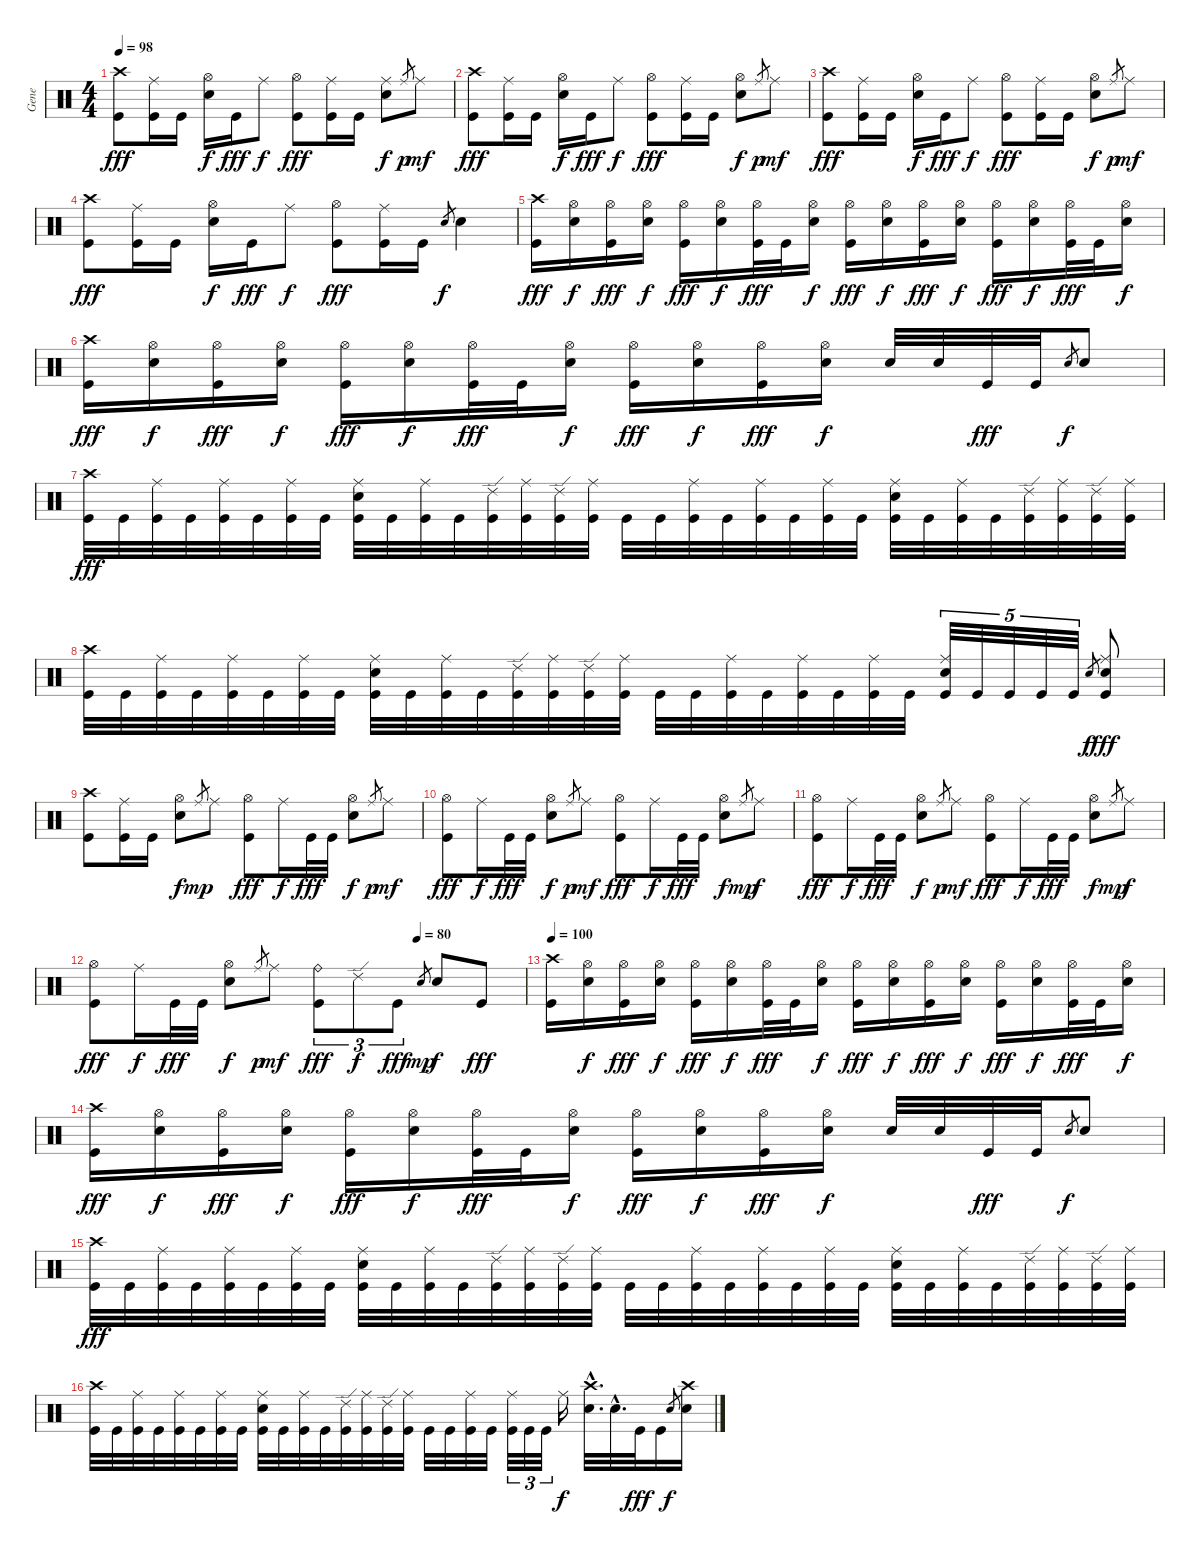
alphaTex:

\track ("Gene" "Gene") {instrument percussion}
\staff {score}
\articulation defaults
\ts (4 4)
\tempo 98
\clef neutral
\ks c
("Crash high (hit)" "Kick (hit)").8{dy fff} ("Ride (middle)" "Kick (hit)").16 "Kick (hit)".16 ("Hi-Hat (open)" "Snare (hit) 2").16{dy f} "Kick (hit)".16{dy fff} "Ride (middle)".8{dy f} ("Hi-Hat (open)" "Kick (hit)").8{dy fff} ("Ride (middle)" "Kick (hit)").16 "Kick (hit)".16 ("Ride (middle)" "Snare (hit) 2").8{dy f} "Ride (middle)".8{gr dy p} "Ride (middle)".8{dy mf} |
("Crash high (hit)" "Kick (hit)").8{dy fff} ("Ride (middle)" "Kick (hit)").16 "Kick (hit)".16 ("Hi-Hat (open)" "Snare (hit) 2").16{dy f} "Kick (hit)".16{dy fff} "Ride (middle)".8{dy f} ("Hi-Hat (open)" "Kick (hit)").8{dy fff} ("Ride (middle)" "Kick (hit)").16 "Kick (hit)".16 ("Hi-Hat (open)" "Snare (hit) 2").8{dy f} "Ride (middle)".8{gr dy p} "Ride (middle)".8{dy mf} |
("Crash high (hit)" "Kick (hit)").8{dy fff} ("Ride (middle)" "Kick (hit)").16 "Kick (hit)".16 ("Hi-Hat (open)" "Snare (hit) 2").16{dy f} "Kick (hit)".16{dy fff} "Ride (middle)".8{dy f} ("Hi-Hat (open)" "Kick (hit)").8{dy fff} ("Ride (middle)" "Kick (hit)").16 "Kick (hit)".16 ("Hi-Hat (open)" "Snare (hit) 2").8{dy f} "Ride (middle)".8{gr dy p} "Ride (middle)".8{dy mf} |
("Crash high (hit)" "Kick (hit)").8{dy fff} ("Ride (middle)" "Kick (hit)").16 "Kick (hit)".16 ("Hi-Hat (open)" "Snare (hit) 2").16{dy f} "Kick (hit)".16{dy fff} "Ride (middle)".8{dy f} ("Hi-Hat (open)" "Kick (hit)").8{dy fff} ("Ride (middle)" "Kick (hit)").16 "Kick (hit)".16 "Snare (hit) 2".8{gr dy f} "Snare (hit) 2".4 |
("Crash high (hit)" "Kick (hit)").16{dy fff} ("Hi-Hat (open)" "Snare (hit) 2").16{dy f} ("Hi-Hat (open)" "Kick (hit)").16{dy fff} ("Hi-Hat (open)" "Snare (hit) 2").16{dy f} ("Hi-Hat (open)" "Kick (hit)").16{dy fff} ("Hi-Hat (open)" "Snare (hit) 2").16{dy f} ("Hi-Hat (open)" "Kick (hit)").32{dy fff} "Kick (hit)".32 ("Hi-Hat (open)" "Snare (hit) 2").16{dy f} ("Hi-Hat (open)" "Kick (hit)").16{dy fff} ("Hi-Hat (open)" "Snare (hit) 2").16{dy f} ("Hi-Hat (open)" "Kick (hit)").16{dy fff} ("Hi-Hat (open)" "Snare (hit) 2").16{dy f} ("Hi-Hat (open)" "Kick (hit)").16{dy fff} ("Hi-Hat (open)" "Snare (hit) 2").16{dy f} ("Hi-Hat (open)" "Kick (hit)").32{dy fff} "Kick (hit)".32 ("Hi-Hat (open)" "Snare (hit) 2").16{dy f} |
("Crash high (hit)" "Kick (hit)").16{dy fff} ("Hi-Hat (open)" "Snare (hit) 2").16{dy f} ("Hi-Hat (open)" "Kick (hit)").16{dy fff} ("Hi-Hat (open)" "Snare (hit) 2").16{dy f} ("Hi-Hat (open)" "Kick (hit)").16{dy fff} ("Hi-Hat (open)" "Snare (hit) 2").16{dy f} ("Hi-Hat (open)" "Kick (hit)").32{dy fff} "Kick (hit)".32 ("Hi-Hat (open)" "Snare (hit) 2").16{dy f} ("Hi-Hat (open)" "Kick (hit)").16{dy fff} ("Hi-Hat (open)" "Snare (hit) 2").16{dy f} ("Hi-Hat (open)" "Kick (hit)").16{dy fff} ("Hi-Hat (open)" "Snare (hit) 2").16{dy f} "Snare (hit) 2".32 "Snare (hit) 2".32 "Kick (hit)".32{dy fff} "Kick (hit)".32 "Snare (hit) 2".8{gr dy f} "Snare (hit) 2".8 |
("Crash high (hit)" "Kick (hit)").32{dy fff} "Kick (hit)".32 ("Ride (middle)" "Kick (hit)").32 "Kick (hit)".32 ("Ride (middle)" "Kick (hit)").32 "Kick (hit)".32 ("Ride (middle)" "Kick (hit)").32 "Kick (hit)".32 ("Ride (middle)" "Snare (hit) 2" "Kick (hit)").32 "Kick (hit)".32 ("Ride (middle)" "Kick (hit)").32 "Kick (hit)".32 ("Ride (edge) 2" "Kick (hit)").32 ("Ride (middle)" "Kick (hit)").32 ("Ride (edge) 2" "Kick (hit)").32 ("Ride (middle)" "Kick (hit)").32 "Kick (hit)".32 "Kick (hit)".32 ("Ride (middle)" "Kick (hit)").32 "Kick (hit)".32 ("Ride (middle)" "Kick (hit)").32 "Kick (hit)".32 ("Ride (middle)" "Kick (hit)").32 "Kick (hit)".32 ("Ride (middle)" "Snare (hit) 2" "Kick (hit)").32 "Kick (hit)".32 ("Ride (middle)" "Kick (hit)").32 "Kick (hit)".32 ("Ride (edge) 2" "Kick (hit)").32 ("Ride (middle)" "Kick (hit)").32 ("Ride (edge) 2" "Kick (hit)").32 ("Ride (middle)" "Kick (hit)").32 |
("Crash high (hit)" "Kick (hit)").32 "Kick (hit)".32 ("Ride (middle)" "Kick (hit)").32 "Kick (hit)".32 ("Ride (middle)" "Kick (hit)").32 "Kick (hit)".32 ("Ride (middle)" "Kick (hit)").32 "Kick (hit)".32 ("Ride (middle)" "Snare (hit) 2" "Kick (hit)").32 "Kick (hit)".32 ("Ride (middle)" "Kick (hit)").32 "Kick (hit)".32 ("Ride (edge) 2" "Kick (hit)").32 ("Ride (middle)" "Kick (hit)").32 ("Ride (edge) 2" "Kick (hit)").32 ("Ride (middle)" "Kick (hit)").32 "Kick (hit)".32 "Kick (hit)".32 ("Ride (middle)" "Kick (hit)").32 "Kick (hit)".32 ("Ride (middle)" "Kick (hit)").32 "Kick (hit)".32 ("Ride (middle)" "Kick (hit)").32 "Kick (hit)".32 ("Ride (middle)" "Snare (hit) 2" "Kick (hit)").32{tu (5 4)} "Kick (hit)".32{tu (5 4)} "Kick (hit)".32{tu (5 4)} "Kick (hit)".32{tu (5 4)} "Kick (hit)".32{tu (5 4)} "Snare (hit) 2".8{gr dy f} ("Ride (middle)" "Snare (hit) 2" "Kick (hit)").8{dy fff} |
("Crash high (hit)" "Kick (hit)").8 ("Ride (middle)" "Kick (hit)").16 "Kick (hit)".16 ("Hi-Hat (open)" "Snare (hit) 2").8{dy f} "Ride (middle)".8{gr dy mp} "Ride (middle)".8 ("Hi-Hat (open)" "Kick (hit)").8{dy fff} "Ride (middle)".16{dy f} "Kick (hit)".32{dy fff} "Kick (hit)".32 ("Hi-Hat (open)" "Snare (hit) 2").8{dy f} "Ride (middle)".8{gr dy p} "Ride (middle)".8{dy mf} |
("Hi-Hat (open)" "Kick (hit)").8{dy fff} "Ride (middle)".16{dy f} "Kick (hit)".32{dy fff} "Kick (hit)".32 ("Hi-Hat (open)" "Snare (hit) 2").8{dy f} "Ride (middle)".8{gr dy p} "Ride (middle)".8{dy mf} ("Hi-Hat (open)" "Kick (hit)").8{dy fff} "Ride (middle)".16{dy f} "Kick (hit)".32{dy fff} "Kick (hit)".32 ("Hi-Hat (open)" "Snare (hit) 2").8{dy f} "Ride (middle)".8{gr dy mp} "Ride (middle)".8{dy f} |
("Hi-Hat (open)" "Kick (hit)").8{dy fff} "Ride (middle)".16{dy f} "Kick (hit)".32{dy fff} "Kick (hit)".32 ("Hi-Hat (open)" "Snare (hit) 2").8{dy f} "Ride (middle)".8{gr dy p} "Ride (middle)".8{dy mf} ("Hi-Hat (open)" "Kick (hit)").8{dy fff} "Ride (middle)".16{dy f} "Kick (hit)".32{dy fff} "Kick (hit)".32 ("Hi-Hat (open)" "Snare (hit) 2").8{dy f} "Ride (middle)".8{gr dy mp} "Ride (middle)".8{dy f} |
\tempo (80 0.75)
("Hi-Hat (open)" "Kick (hit)").8{dy fff} "Ride (middle)".16{dy f} "Kick (hit)".32{dy fff} "Kick (hit)".32 ("Hi-Hat (open)" "Snare (hit) 2").8{dy f} "Ride (middle)".8{gr dy p} "Ride (middle)".8{dy mf} ("Ride (bell)" "Kick (hit)").8{tu (3 2) dy fff} "Ride (edge) 2".8{tu (3 2) dy f balance 16} "Kick (hit)".8{tu (3 2) dy fff balance 8} "Snare (hit) 2".8{gr dy mp} "Snare (hit) 2".8{dy f} "Kick (hit)".8{dy fff} |
\tempo 100
("Crash high (hit)" "Kick (hit)").16 ("Hi-Hat (open)" "Snare (hit) 2").16{dy f} ("Hi-Hat (open)" "Kick (hit)").16{dy fff} ("Hi-Hat (open)" "Snare (hit) 2").16{dy f} ("Hi-Hat (open)" "Kick (hit)").16{dy fff} ("Hi-Hat (open)" "Snare (hit) 2").16{dy f} ("Hi-Hat (open)" "Kick (hit)").32{dy fff} "Kick (hit)".32 ("Hi-Hat (open)" "Snare (hit) 2").16{dy f} ("Hi-Hat (open)" "Kick (hit)").16{dy fff} ("Hi-Hat (open)" "Snare (hit) 2").16{dy f} ("Hi-Hat (open)" "Kick (hit)").16{dy fff} ("Hi-Hat (open)" "Snare (hit) 2").16{dy f} ("Hi-Hat (open)" "Kick (hit)").16{dy fff} ("Hi-Hat (open)" "Snare (hit) 2").16{dy f} ("Hi-Hat (open)" "Kick (hit)").32{dy fff} "Kick (hit)".32 ("Hi-Hat (open)" "Snare (hit) 2").16{dy f} |
("Crash high (hit)" "Kick (hit)").16{dy fff} ("Hi-Hat (open)" "Snare (hit) 2").16{dy f} ("Hi-Hat (open)" "Kick (hit)").16{dy fff} ("Hi-Hat (open)" "Snare (hit) 2").16{dy f} ("Hi-Hat (open)" "Kick (hit)").16{dy fff} ("Hi-Hat (open)" "Snare (hit) 2").16{dy f} ("Hi-Hat (open)" "Kick (hit)").32{dy fff} "Kick (hit)".32 ("Hi-Hat (open)" "Snare (hit) 2").16{dy f} ("Hi-Hat (open)" "Kick (hit)").16{dy fff} ("Hi-Hat (open)" "Snare (hit) 2").16{dy f} ("Hi-Hat (open)" "Kick (hit)").16{dy fff} ("Hi-Hat (open)" "Snare (hit) 2").16{dy f} "Snare (hit) 2".32 "Snare (hit) 2".32 "Kick (hit)".32{dy fff} "Kick (hit)".32 "Snare (hit) 2".8{gr dy f} "Snare (hit) 2".8 |
("Crash high (hit)" "Kick (hit)").32{dy fff} "Kick (hit)".32 ("Ride (middle)" "Kick (hit)").32 "Kick (hit)".32 ("Ride (middle)" "Kick (hit)").32 "Kick (hit)".32 ("Ride (middle)" "Kick (hit)").32 "Kick (hit)".32 ("Ride (middle)" "Snare (hit) 2" "Kick (hit)").32 "Kick (hit)".32 ("Ride (middle)" "Kick (hit)").32 "Kick (hit)".32 ("Ride (edge) 2" "Kick (hit)").32 ("Ride (middle)" "Kick (hit)").32 ("Ride (edge) 2" "Kick (hit)").32 ("Ride (middle)" "Kick (hit)").32 "Kick (hit)".32 "Kick (hit)".32 ("Ride (middle)" "Kick (hit)").32 "Kick (hit)".32 ("Ride (middle)" "Kick (hit)").32 "Kick (hit)".32 ("Ride (middle)" "Kick (hit)").32 "Kick (hit)".32 ("Ride (middle)" "Snare (hit) 2" "Kick (hit)").32 "Kick (hit)".32 ("Ride (middle)" "Kick (hit)").32 "Kick (hit)".32 ("Ride (edge) 2" "Kick (hit)").32 ("Ride (middle)" "Kick (hit)").32 ("Ride (edge) 2" "Kick (hit)").32 ("Ride (middle)" "Kick (hit)").32 |
("Crash high (hit)" "Kick (hit)").32 "Kick (hit)".32 ("Ride (middle)" "Kick (hit)").32 "Kick (hit)".32 ("Ride (middle)" "Kick (hit)").32 "Kick (hit)".32 ("Ride (middle)" "Kick (hit)").32 "Kick (hit)".32 ("Ride (middle)" "Snare (hit) 2" "Kick (hit)").32 "Kick (hit)".32 ("Ride (middle)" "Kick (hit)").32 "Kick (hit)".32 ("Ride (edge) 2" "Kick (hit)").32 ("Ride (middle)" "Kick (hit)").32 ("Ride (edge) 2" "Kick (hit)").32 ("Ride (middle)" "Kick (hit)").32 "Kick (hit)".32 "Kick (hit)".32 ("Ride (middle)" "Kick (hit)").32 "Kick (hit)".32 ("Ride (middle)" "Kick (hit)").32{tu (3 2)} "Kick (hit)".32{tu (3 2)} "Kick (hit)".32{tu (3 2)} "Ride (middle)".16{dy f} ("Crash high (hit)"{hac} "Snare (hit) 2"{hac}).32{d} "Snare (hit) 2"{hac}.32{d} "Kick (hit)".32{dy fff} "Kick (hit)".16 "Snare (hit) 2".8{gr dy f} ("Crash high (hit)" "Snare (hit) 2").16
